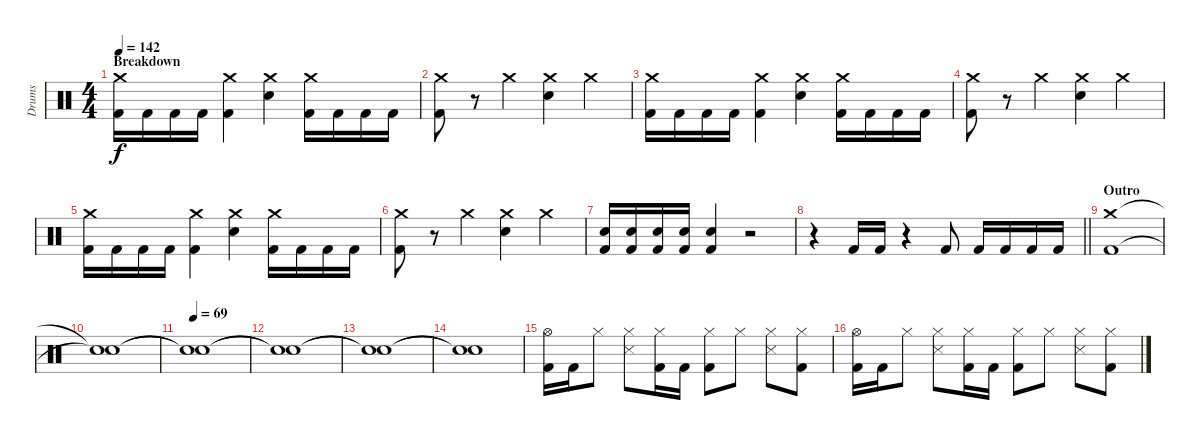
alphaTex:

\track ("Drums" "Drums") {instrument percussion}
\staff {score}
\articulation defaults
\ts (4 4)
\section ("" "Breakdown")
\tempo 142
\clef neutral
\ks c
("Crash medium (hit)" "Kick (hit) 2").16{dy f} "Kick (hit) 2".16 "Kick (hit) 2".16 "Kick (hit) 2".16 ("Crash medium (hit)" "Kick (hit) 2").4 ("Crash medium (hit)" "Electric Snare (hit)").4 ("Crash medium (hit)" "Kick (hit) 2").16 "Kick (hit) 2".16 "Kick (hit) 2".16 "Kick (hit) 2".16 |
("Crash medium (hit)" "Kick (hit) 2").8 r.8 "Crash medium (hit)".4 ("Crash medium (hit)" "Electric Snare (hit)").4 "Crash medium (hit)".4 |
("Crash medium (hit)" "Kick (hit) 2").16 "Kick (hit) 2".16 "Kick (hit) 2".16 "Kick (hit) 2".16 ("Crash medium (hit)" "Kick (hit) 2").4 ("Crash medium (hit)" "Electric Snare (hit)").4 ("Crash medium (hit)" "Kick (hit) 2").16 "Kick (hit) 2".16 "Kick (hit) 2".16 "Kick (hit) 2".16 |
("Crash medium (hit)" "Kick (hit) 2").8 r.8 "Crash medium (hit)".4 ("Crash medium (hit)" "Electric Snare (hit)").4 "Crash medium (hit)".4 |
("Crash medium (hit)" "Kick (hit) 2").16 "Kick (hit) 2".16 "Kick (hit) 2".16 "Kick (hit) 2".16 ("Crash medium (hit)" "Kick (hit) 2").4 ("Crash medium (hit)" "Electric Snare (hit)").4 ("Crash medium (hit)" "Kick (hit) 2").16 "Kick (hit) 2".16 "Kick (hit) 2".16 "Kick (hit) 2".16 |
("Crash medium (hit)" "Kick (hit) 2").8 r.8 "Crash medium (hit)".4 ("Crash medium (hit)" "Electric Snare (hit)").4 "Crash medium (hit)".4 |
("Electric Snare (hit)" "Kick (hit) 2").16 ("Electric Snare (hit)" "Kick (hit) 2").16 ("Electric Snare (hit)" "Kick (hit) 2").16 ("Electric Snare (hit)" "Kick (hit) 2").16 ("Electric Snare (hit)" "Kick (hit) 2").4 r.2 |
\barLineRight lightlight
r.4 "Kick (hit) 2".16 "Kick (hit) 2".16 r.4 "Kick (hit) 2".8 "Kick (hit) 2".16 "Kick (hit) 2".16 "Kick (hit) 2".16 "Kick (hit) 2".16 |
\section ("" "Outro")
("Crash medium (hit)" "Kick (hit) 2").1 |
("Snare (hit)"{t} "Snare (hit)"{t}).1 |
\tempo 69
("Snare (hit)"{t} "Snare (hit)"{t}).1 |
("Snare (hit)"{t} "Snare (hit)"{t}).1 |
("Snare (hit)"{t} "Snare (hit)"{t}).1 |
("Snare (hit)"{t} "Snare (hit)"{t}).1 |
("Hi-Hat (open)" "Kick (hit) 2").16 "Kick (hit) 2".16 "Hi-Hat (closed)".8 ("Hi-Hat (closed)" "Snare (side stick) 3").8 ("Hi-Hat (closed)" "Kick (hit) 2").16 "Kick (hit) 2".16 ("Hi-Hat (closed)" "Kick (hit) 2").8 "Hi-Hat (closed)".8 ("Hi-Hat (closed)" "Snare (side stick) 3").8 ("Hi-Hat (closed)" "Kick (hit) 2").8 |
("Hi-Hat (open)" "Kick (hit) 2").16 "Kick (hit) 2".16 "Hi-Hat (closed)".8 ("Hi-Hat (closed)" "Snare (side stick) 3").8 ("Hi-Hat (closed)" "Kick (hit) 2").16 "Kick (hit) 2".16 ("Hi-Hat (closed)" "Kick (hit) 2").8 "Hi-Hat (closed)".8 ("Hi-Hat (closed)" "Snare (side stick) 3").8 ("Hi-Hat (closed)" "Kick (hit) 2").8
